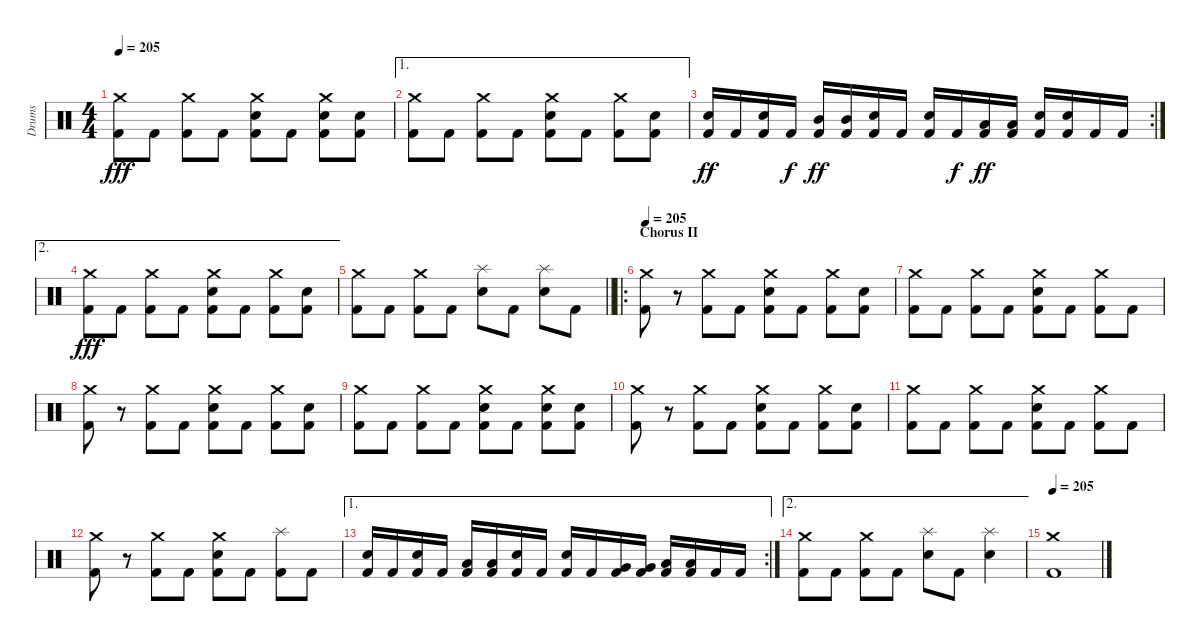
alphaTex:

\track ("Drums" "Drums") {instrument percussion}
\staff {score}
\articulation defaults
\ts (4 4)
\tempo 205
\clef neutral
\ks c
("Crash medium (hit)" "Kick (hit) 2").8{dy fff} "Kick (hit) 2".8 ("Crash medium (hit)" "Kick (hit) 2").8 "Kick (hit) 2".8 ("Crash medium (hit)" "Electric Snare (hit)" "Kick (hit) 2").8 "Kick (hit) 2".8 ("Crash medium (hit)" "Electric Snare (hit)" "Kick (hit) 2").8 ("Electric Snare (hit)" "Kick (hit) 2").8 |
\ae 1
("Crash medium (hit)" "Kick (hit) 2").8 "Kick (hit) 2".8 ("Crash medium (hit)" "Kick (hit) 2").8 "Kick (hit) 2".8 ("Crash medium (hit)" "Electric Snare (hit)" "Kick (hit) 2").8 "Kick (hit) 2".8 ("Crash medium (hit)" "Kick (hit) 2").8 ("Electric Snare (hit)" "Kick (hit) 2").8 |
\rc 2
("Electric Snare (hit)" "Kick (hit) 2").16{dy ff} "Kick (hit) 2".16 ("Electric Snare (hit)" "Kick (hit) 2").16 "Kick (hit) 2".16{dy f} ("Mid Tom (hit)" "Kick (hit) 2").16{dy ff} ("Mid Tom (hit)" "Kick (hit) 2").16 ("Electric Snare (hit)" "Kick (hit) 2").16 "Kick (hit) 2".16 ("Electric Snare (hit)" "Kick (hit) 2").16 "Kick (hit) 2".16{dy f} ("Low Tom (hit)" "Kick (hit) 2").16{dy ff} ("Low Tom (hit)" "Kick (hit) 2").16 ("Electric Snare (hit)" "Kick (hit) 2").16 ("Electric Snare (hit)" "Kick (hit) 2").16 "Kick (hit) 2".16 "Kick (hit) 2".16 |
\ae 2
("Crash medium (hit)" "Kick (hit) 2").8{dy fff} "Kick (hit) 2".8 ("Crash medium (hit)" "Kick (hit) 2").8 "Kick (hit) 2".8 ("Crash medium (hit)" "Electric Snare (hit)" "Kick (hit) 2").8 "Kick (hit) 2".8 ("Crash medium (hit)" "Kick (hit) 2").8 ("Electric Snare (hit)" "Kick (hit) 2").8 |
\barLineRight lightlight
("Crash medium (hit)" "Kick (hit) 2").8 "Kick (hit) 2".8 ("Crash medium (hit)" "Kick (hit) 2").8 "Kick (hit) 2".8 ("Splash (hit)" "Electric Snare (hit)").8 "Kick (hit) 2".8 ("Splash (hit)" "Electric Snare (hit)").8 "Kick (hit) 2".8 |
\ro
\section ("" "Chorus II")
\tempo 205
("Crash medium (hit)" "Kick (hit) 2").8 r.8 ("Crash medium (hit)" "Kick (hit) 2").8 "Kick (hit) 2".8 ("Crash medium (hit)" "Electric Snare (hit)" "Kick (hit) 2").8 "Kick (hit) 2".8 ("Crash medium (hit)" "Kick (hit) 2").8 ("Electric Snare (hit)" "Kick (hit) 2").8 |
("Crash medium (hit)" "Kick (hit) 2").8 "Kick (hit) 2".8 ("Crash medium (hit)" "Kick (hit) 2").8 "Kick (hit) 2".8 ("Crash medium (hit)" "Electric Snare (hit)" "Kick (hit) 2").8 "Kick (hit) 2".8 ("Crash medium (hit)" "Kick (hit) 2").8 "Kick (hit) 2".8 |
("Crash medium (hit)" "Kick (hit) 2").8 r.8 ("Crash medium (hit)" "Kick (hit) 2").8 "Kick (hit) 2".8 ("Crash medium (hit)" "Electric Snare (hit)" "Kick (hit) 2").8 "Kick (hit) 2".8 ("Crash medium (hit)" "Kick (hit) 2").8 ("Electric Snare (hit)" "Kick (hit) 2").8 |
("Crash medium (hit)" "Kick (hit) 2").8 "Kick (hit) 2".8 ("Crash medium (hit)" "Kick (hit) 2").8 "Kick (hit) 2".8 ("Crash medium (hit)" "Electric Snare (hit)" "Kick (hit) 2").8 "Kick (hit) 2".8 ("Crash medium (hit)" "Electric Snare (hit)" "Kick (hit) 2").8 ("Electric Snare (hit)" "Kick (hit) 2").8 |
("Crash medium (hit)" "Kick (hit) 2").8 r.8 ("Crash medium (hit)" "Kick (hit) 2").8 "Kick (hit) 2".8 ("Crash medium (hit)" "Electric Snare (hit)" "Kick (hit) 2").8 "Kick (hit) 2".8 ("Crash medium (hit)" "Kick (hit) 2").8 ("Electric Snare (hit)" "Kick (hit) 2").8 |
("Crash medium (hit)" "Kick (hit) 2").8 "Kick (hit) 2".8 ("Crash medium (hit)" "Kick (hit) 2").8 "Kick (hit) 2".8 ("Crash medium (hit)" "Electric Snare (hit)" "Kick (hit) 2").8 "Kick (hit) 2".8 ("Crash medium (hit)" "Kick (hit) 2").8 "Kick (hit) 2".8 |
("Crash medium (hit)" "Kick (hit) 2").8 r.8 ("Crash medium (hit)" "Kick (hit) 2").8 "Kick (hit) 2".8 ("Crash medium (hit)" "Electric Snare (hit)" "Kick (hit) 2").8 "Kick (hit) 2".8 ("Splash (hit)" "Kick (hit) 2").8 "Kick (hit) 2".8 |
\ae 1
\rc 2
("Electric Snare (hit)" "Kick (hit) 2").16 "Kick (hit) 2".16 ("Electric Snare (hit)" "Kick (hit) 2").16 "Kick (hit) 2".16 ("Low Tom (hit)" "Kick (hit) 2").16 ("Low Tom (hit)" "Kick (hit) 2").16 ("Electric Snare (hit)" "Kick (hit) 2").16 "Kick (hit) 2".16 ("Electric Snare (hit)" "Kick (hit) 2").16 "Kick (hit) 2".16 ("Very Low Tom (hit)" "Kick (hit) 2").16 ("Very Low Tom (hit)" "Kick (hit) 2").16 ("Low Floor Tom (hit)" "Kick (hit) 2").16 ("Low Floor Tom (hit)" "Kick (hit) 2").16 "Kick (hit) 2".16 "Kick (hit) 2".16 |
\ae 2
("Crash medium (hit)" "Kick (hit) 2").8 "Kick (hit) 2".8 ("Crash medium (hit)" "Kick (hit) 2").8 "Kick (hit) 2".8 ("Splash (hit)" "Electric Snare (hit)").8 "Kick (hit) 2".8 ("Splash (hit)" "Electric Snare (hit)").4 |
\tempo 205
("Crash medium (hit)" "Kick (hit) 2").1
